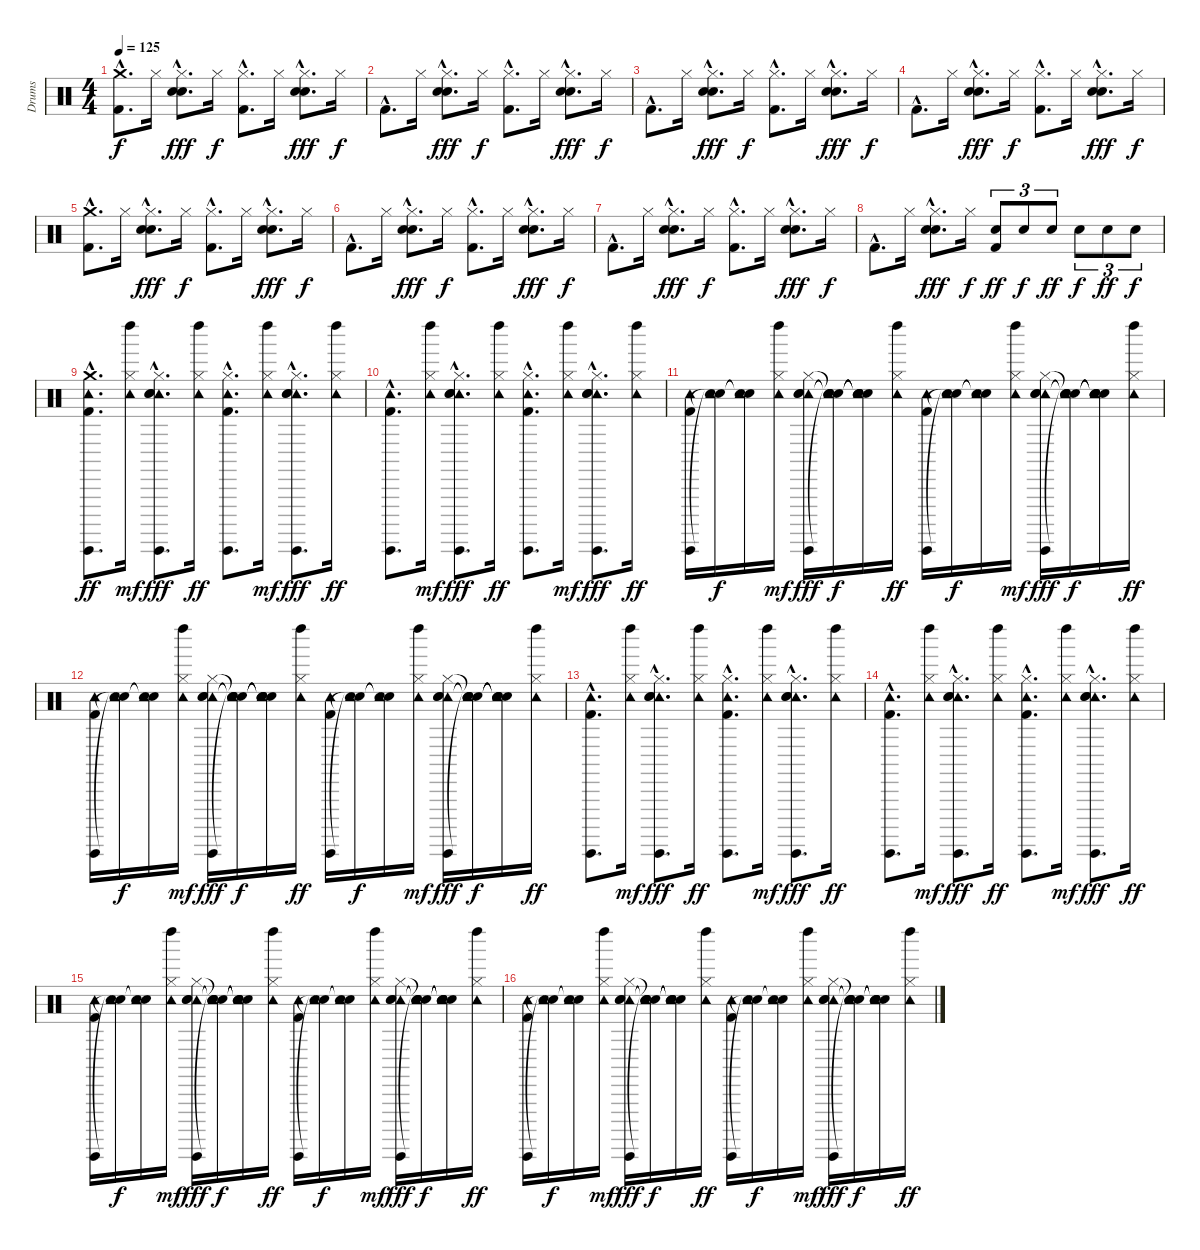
\track ("Drums" "Drums") {instrument percussion}
\staff {score}
\articulation defaults
\ts (4 4)
\tempo 125
\clef neutral
\ks c
("Crash medium (hit)"{hac} "Kick (hit) 2"{hac}).8{d dy f} "Hi-Hat (closed)".16 ("Hand Clap (hit)"{hac} "Hi-Hat (closed)"{hac} "Snare (hit) 2"{hac}).8{d dy fff} "Hi-Hat (closed)".16{dy f} ("Hi-Hat (closed)"{hac} "Kick (hit) 2"{hac}).8{d} "Hi-Hat (closed)".16 ("Hand Clap (hit)"{hac} "Hi-Hat (closed)"{hac} "Snare (hit) 2"{hac}).8{d dy fff} "Hi-Hat (closed)".16{dy f} |
"Kick (hit) 2"{hac}.8{d} "Hi-Hat (closed)".16 ("Hand Clap (hit)"{hac} "Hi-Hat (closed)"{hac} "Snare (hit) 2"{hac}).8{d dy fff} "Hi-Hat (closed)".16{dy f} ("Hi-Hat (closed)"{hac} "Kick (hit) 2"{hac}).8{d} "Hi-Hat (closed)".16 ("Hand Clap (hit)"{hac} "Hi-Hat (closed)"{hac} "Snare (hit) 2"{hac}).8{d dy fff} "Hi-Hat (closed)".16{dy f} |
"Kick (hit) 2"{hac}.8{d} "Hi-Hat (closed)".16 ("Hand Clap (hit)"{hac} "Hi-Hat (closed)"{hac} "Snare (hit) 2"{hac}).8{d dy fff} "Hi-Hat (closed)".16{dy f} ("Hi-Hat (closed)"{hac} "Kick (hit) 2"{hac}).8{d} "Hi-Hat (closed)".16 ("Hand Clap (hit)"{hac} "Hi-Hat (closed)"{hac} "Snare (hit) 2"{hac}).8{d dy fff} "Hi-Hat (closed)".16{dy f} |
"Kick (hit) 2"{hac}.8{d} "Hi-Hat (closed)".16 ("Hand Clap (hit)"{hac} "Hi-Hat (closed)"{hac} "Snare (hit) 2"{hac}).8{d dy fff} "Hi-Hat (closed)".16{dy f} ("Hi-Hat (closed)"{hac} "Kick (hit) 2"{hac}).8{d} "Hi-Hat (closed)".16 ("Hand Clap (hit)"{hac} "Hi-Hat (closed)"{hac} "Snare (hit) 2"{hac}).8{d dy fff} "Hi-Hat (closed)".16{dy f} |
("Crash medium (hit)"{hac} "Kick (hit) 2"{hac}).8{d} "Hi-Hat (closed)".16 ("Hand Clap (hit)"{hac} "Hi-Hat (closed)"{hac} "Snare (hit) 2"{hac}).8{d dy fff} "Hi-Hat (closed)".16{dy f} ("Hi-Hat (closed)"{hac} "Kick (hit) 2"{hac}).8{d} "Hi-Hat (closed)".16 ("Hand Clap (hit)"{hac} "Hi-Hat (closed)"{hac} "Snare (hit) 2"{hac}).8{d dy fff} "Hi-Hat (closed)".16{dy f} |
"Kick (hit) 2"{hac}.8{d} "Hi-Hat (closed)".16 ("Hand Clap (hit)"{hac} "Hi-Hat (closed)"{hac} "Snare (hit) 2"{hac}).8{d dy fff} "Hi-Hat (closed)".16{dy f} ("Hi-Hat (closed)"{hac} "Kick (hit) 2"{hac}).8{d} "Hi-Hat (closed)".16 ("Hand Clap (hit)"{hac} "Hi-Hat (closed)"{hac} "Snare (hit) 2"{hac}).8{d dy fff} "Hi-Hat (closed)".16{dy f} |
"Kick (hit) 2"{hac}.8{d} "Hi-Hat (closed)".16 ("Hand Clap (hit)"{hac} "Hi-Hat (closed)"{hac} "Snare (hit) 2"{hac}).8{d dy fff} "Hi-Hat (closed)".16{dy f} ("Hi-Hat (closed)"{hac} "Kick (hit) 2"{hac}).8{d} "Hi-Hat (closed)".16 ("Hand Clap (hit)"{hac} "Hi-Hat (closed)"{hac} "Snare (hit) 2"{hac}).8{d dy fff} "Hi-Hat (closed)".16{dy f} |
"Kick (hit) 2"{hac}.8{d} "Hi-Hat (closed)".16 ("Hand Clap (hit)"{hac} "Hi-Hat (closed)"{hac} "Snare (hit) 2"{hac}).8{d dy fff} "Hi-Hat (closed)".16{dy f} ("Snare (hit) 2" "Kick (hit) 2").8{tu (3 2) dy ff} "Snare (hit) 2".8{tu (3 2) dy f} "Snare (hit) 2".8{tu (3 2) dy ff} "Snare (hit) 2".8{tu (3 2) dy f} "Snare (hit) 2".8{tu (3 2) dy ff} "Snare (hit) 2".8{tu (3 2) dy f} |
("Guiro (hit)"{hac} "Tambourine (hit)"{hac} "Crash medium (hit)"{hac} "Kick (hit) 2"{hac}).8{d dy ff} ("Left Maraca (hit)" "Tambourine (hit)" "Hi-Hat (closed)").16{dy mf} ("Guiro (hit)"{hac} "Tambourine (hit)"{hac} "Hi-Hat (closed)"{hac} "Hand Clap (hit)"{hac} "Snare (hit) 2"{hac}).8{d dy fff} ("Left Maraca (hit)" "Tambourine (hit)" "Hi-Hat (closed)").16{dy ff} ("Guiro (hit)"{hac} "Tambourine (hit)"{hac} "Hi-Hat (closed)"{hac} "Kick (hit) 2"{hac}).8{d} ("Left Maraca (hit)" "Tambourine (hit)" "Hi-Hat (closed)").16{dy mf} ("Guiro (hit)"{hac} "Tambourine (hit)"{hac} "Hi-Hat (closed)"{hac} "Hand Clap (hit)"{hac} "Snare (hit) 2"{hac}).8{d dy fff} ("Left Maraca (hit)" "Tambourine (hit)" "Hi-Hat (closed)").16{dy ff} |
("Guiro (hit)"{hac} "Tambourine (hit)"{hac} "Kick (hit) 2"{hac}).8{d} ("Left Maraca (hit)" "Tambourine (hit)" "Hi-Hat (closed)").16{dy mf} ("Guiro (hit)"{hac} "Tambourine (hit)"{hac} "Hi-Hat (closed)"{hac} "Hand Clap (hit)"{hac} "Snare (hit) 2"{hac}).8{d dy fff} ("Left Maraca (hit)" "Tambourine (hit)" "Hi-Hat (closed)").16{dy ff} ("Guiro (hit)"{hac} "Tambourine (hit)"{hac} "Hi-Hat (closed)"{hac} "Kick (hit) 2"{hac}).8{d} ("Left Maraca (hit)" "Tambourine (hit)" "Hi-Hat (closed)").16{dy mf} ("Guiro (hit)"{hac} "Tambourine (hit)"{hac} "Hi-Hat (closed)"{hac} "Hand Clap (hit)"{hac} "Snare (hit) 2"{hac}).8{d dy fff} ("Left Maraca (hit)" "Tambourine (hit)" "Hi-Hat (closed)").16{dy ff} |
("Guiro (hit)" "Tambourine (hit)" "Kick (hit) 2").16 ("Snare (hit)"{t} "Tambourine (hit)" "Snare (hit)"{t}).16{dy f} ("Snare (hit)"{t} "Tambourine (hit)" "Snare (hit)"{t}).16 ("Left Maraca (hit)" "Tambourine (hit)" "Hi-Hat (closed)").16{dy mf} ("Guiro (hit)" "Tambourine (hit)" "Hi-Hat (closed)" "Hand Clap (hit)" "Snare (hit) 2").16{dy fff} ("Snare (hit)"{t} "Tambourine (hit)" "Snare (hit)"{t} "Snare (hit)"{t} "Snare (hit)"{t}).16{dy f} ("Snare (hit)"{t} "Tambourine (hit)" "Snare (hit)"{t} "Snare (hit)"{t} "Snare (hit)"{t}).16 ("Left Maraca (hit)" "Tambourine (hit)" "Hi-Hat (closed)").16{dy ff} ("Guiro (hit)" "Tambourine (hit)" "Kick (hit) 2").16 ("Snare (hit)"{t} "Tambourine (hit)" "Snare (hit)"{t}).16{dy f} ("Snare (hit)"{t} "Tambourine (hit)" "Snare (hit)"{t}).16 ("Left Maraca (hit)" "Tambourine (hit)" "Hi-Hat (closed)").16{dy mf} ("Guiro (hit)" "Tambourine (hit)" "Hi-Hat (closed)" "Hand Clap (hit)" "Snare (hit) 2").16{dy fff} ("Snare (hit)"{t} "Tambourine (hit)" "Snare (hit)"{t} "Snare (hit)"{t} "Snare (hit)"{t}).16{dy f} ("Snare (hit)"{t} "Tambourine (hit)" "Snare (hit)"{t} "Snare (hit)"{t} "Snare (hit)"{t}).16 ("Left Maraca (hit)" "Tambourine (hit)" "Hi-Hat (closed)").16{dy ff} |
("Guiro (hit)" "Tambourine (hit)" "Kick (hit) 2").16 ("Snare (hit)"{t} "Tambourine (hit)" "Snare (hit)"{t}).16{dy f} ("Snare (hit)"{t} "Tambourine (hit)" "Snare (hit)"{t}).16 ("Left Maraca (hit)" "Tambourine (hit)" "Hi-Hat (closed)").16{dy mf} ("Guiro (hit)" "Tambourine (hit)" "Hi-Hat (closed)" "Hand Clap (hit)" "Snare (hit) 2").16{dy fff} ("Snare (hit)"{t} "Tambourine (hit)" "Snare (hit)"{t} "Snare (hit)"{t} "Snare (hit)"{t}).16{dy f} ("Snare (hit)"{t} "Tambourine (hit)" "Snare (hit)"{t} "Snare (hit)"{t} "Snare (hit)"{t}).16 ("Left Maraca (hit)" "Tambourine (hit)" "Hi-Hat (closed)").16{dy ff} ("Guiro (hit)" "Tambourine (hit)" "Kick (hit) 2").16 ("Snare (hit)"{t} "Tambourine (hit)" "Snare (hit)"{t}).16{dy f} ("Snare (hit)"{t} "Tambourine (hit)" "Snare (hit)"{t}).16 ("Left Maraca (hit)" "Tambourine (hit)" "Hi-Hat (closed)").16{dy mf} ("Guiro (hit)" "Tambourine (hit)" "Hi-Hat (closed)" "Hand Clap (hit)" "Snare (hit) 2").16{dy fff} ("Snare (hit)"{t} "Tambourine (hit)" "Snare (hit)"{t} "Snare (hit)"{t} "Snare (hit)"{t}).16{dy f} ("Snare (hit)"{t} "Tambourine (hit)" "Snare (hit)"{t} "Snare (hit)"{t} "Snare (hit)"{t}).16 ("Left Maraca (hit)" "Tambourine (hit)" "Hi-Hat (closed)").16{dy ff} |
("Guiro (hit)"{hac} "Tambourine (hit)"{hac} "Kick (hit) 2"{hac}).8{d} ("Left Maraca (hit)" "Tambourine (hit)" "Hi-Hat (closed)").16{dy mf} ("Guiro (hit)"{hac} "Tambourine (hit)"{hac} "Hi-Hat (closed)"{hac} "Hand Clap (hit)"{hac} "Snare (hit) 2"{hac}).8{d dy fff} ("Left Maraca (hit)" "Tambourine (hit)" "Hi-Hat (closed)").16{dy ff} ("Guiro (hit)"{hac} "Tambourine (hit)"{hac} "Hi-Hat (closed)"{hac} "Kick (hit) 2"{hac}).8{d} ("Left Maraca (hit)" "Tambourine (hit)" "Hi-Hat (closed)").16{dy mf} ("Guiro (hit)"{hac} "Tambourine (hit)"{hac} "Hi-Hat (closed)"{hac} "Hand Clap (hit)"{hac} "Snare (hit) 2"{hac}).8{d dy fff} ("Left Maraca (hit)" "Tambourine (hit)" "Hi-Hat (closed)").16{dy ff} |
("Guiro (hit)"{hac} "Tambourine (hit)"{hac} "Kick (hit) 2"{hac}).8{d} ("Left Maraca (hit)" "Tambourine (hit)" "Hi-Hat (closed)").16{dy mf} ("Guiro (hit)"{hac} "Tambourine (hit)"{hac} "Hi-Hat (closed)"{hac} "Hand Clap (hit)"{hac} "Snare (hit) 2"{hac}).8{d dy fff} ("Left Maraca (hit)" "Tambourine (hit)" "Hi-Hat (closed)").16{dy ff} ("Guiro (hit)"{hac} "Tambourine (hit)"{hac} "Hi-Hat (closed)"{hac} "Kick (hit) 2"{hac}).8{d} ("Left Maraca (hit)" "Tambourine (hit)" "Hi-Hat (closed)").16{dy mf} ("Guiro (hit)"{hac} "Tambourine (hit)"{hac} "Hi-Hat (closed)"{hac} "Hand Clap (hit)"{hac} "Snare (hit) 2"{hac}).8{d dy fff} ("Left Maraca (hit)" "Tambourine (hit)" "Hi-Hat (closed)").16{dy ff} |
("Guiro (hit)" "Tambourine (hit)" "Kick (hit) 2").16 ("Snare (hit)"{t} "Tambourine (hit)" "Snare (hit)"{t}).16{dy f} ("Snare (hit)"{t} "Tambourine (hit)" "Snare (hit)"{t}).16 ("Left Maraca (hit)" "Tambourine (hit)" "Hi-Hat (closed)").16{dy mf} ("Guiro (hit)" "Tambourine (hit)" "Hi-Hat (closed)" "Hand Clap (hit)" "Snare (hit) 2").16{dy fff} ("Snare (hit)"{t} "Tambourine (hit)" "Snare (hit)"{t} "Snare (hit)"{t} "Snare (hit)"{t}).16{dy f} ("Snare (hit)"{t} "Tambourine (hit)" "Snare (hit)"{t} "Snare (hit)"{t} "Snare (hit)"{t}).16 ("Left Maraca (hit)" "Tambourine (hit)" "Hi-Hat (closed)").16{dy ff} ("Guiro (hit)" "Tambourine (hit)" "Kick (hit) 2").16 ("Snare (hit)"{t} "Tambourine (hit)" "Snare (hit)"{t}).16{dy f} ("Snare (hit)"{t} "Tambourine (hit)" "Snare (hit)"{t}).16 ("Left Maraca (hit)" "Tambourine (hit)" "Hi-Hat (closed)").16{dy mf} ("Guiro (hit)" "Tambourine (hit)" "Hi-Hat (closed)" "Hand Clap (hit)" "Snare (hit) 2").16{dy fff} ("Snare (hit)"{t} "Tambourine (hit)" "Snare (hit)"{t} "Snare (hit)"{t} "Snare (hit)"{t}).16{dy f} ("Snare (hit)"{t} "Tambourine (hit)" "Snare (hit)"{t} "Snare (hit)"{t} "Snare (hit)"{t}).16 ("Left Maraca (hit)" "Tambourine (hit)" "Hi-Hat (closed)").16{dy ff} |
("Guiro (hit)" "Tambourine (hit)" "Kick (hit) 2").16 ("Snare (hit)"{t} "Tambourine (hit)" "Snare (hit)"{t}).16{dy f} ("Snare (hit)"{t} "Tambourine (hit)" "Snare (hit)"{t}).16 ("Left Maraca (hit)" "Tambourine (hit)" "Hi-Hat (closed)").16{dy mf} ("Guiro (hit)" "Tambourine (hit)" "Hi-Hat (closed)" "Hand Clap (hit)" "Snare (hit) 2").16{dy fff} ("Snare (hit)"{t} "Tambourine (hit)" "Snare (hit)"{t} "Snare (hit)"{t} "Snare (hit)"{t}).16{dy f} ("Snare (hit)"{t} "Tambourine (hit)" "Snare (hit)"{t} "Snare (hit)"{t} "Snare (hit)"{t}).16 ("Left Maraca (hit)" "Tambourine (hit)" "Hi-Hat (closed)").16{dy ff} ("Guiro (hit)" "Tambourine (hit)" "Kick (hit) 2").16 ("Snare (hit)"{t} "Tambourine (hit)" "Snare (hit)"{t}).16{dy f} ("Snare (hit)"{t} "Tambourine (hit)" "Snare (hit)"{t}).16 ("Left Maraca (hit)" "Tambourine (hit)" "Hi-Hat (closed)").16{dy mf} ("Guiro (hit)" "Tambourine (hit)" "Hi-Hat (closed)" "Hand Clap (hit)" "Snare (hit) 2").16{dy fff} ("Snare (hit)"{t} "Tambourine (hit)" "Snare (hit)"{t} "Snare (hit)"{t} "Snare (hit)"{t}).16{dy f} ("Snare (hit)"{t} "Tambourine (hit)" "Snare (hit)"{t} "Snare (hit)"{t} "Snare (hit)"{t}).16 ("Left Maraca (hit)" "Tambourine (hit)" "Hi-Hat (closed)").16{dy ff}
